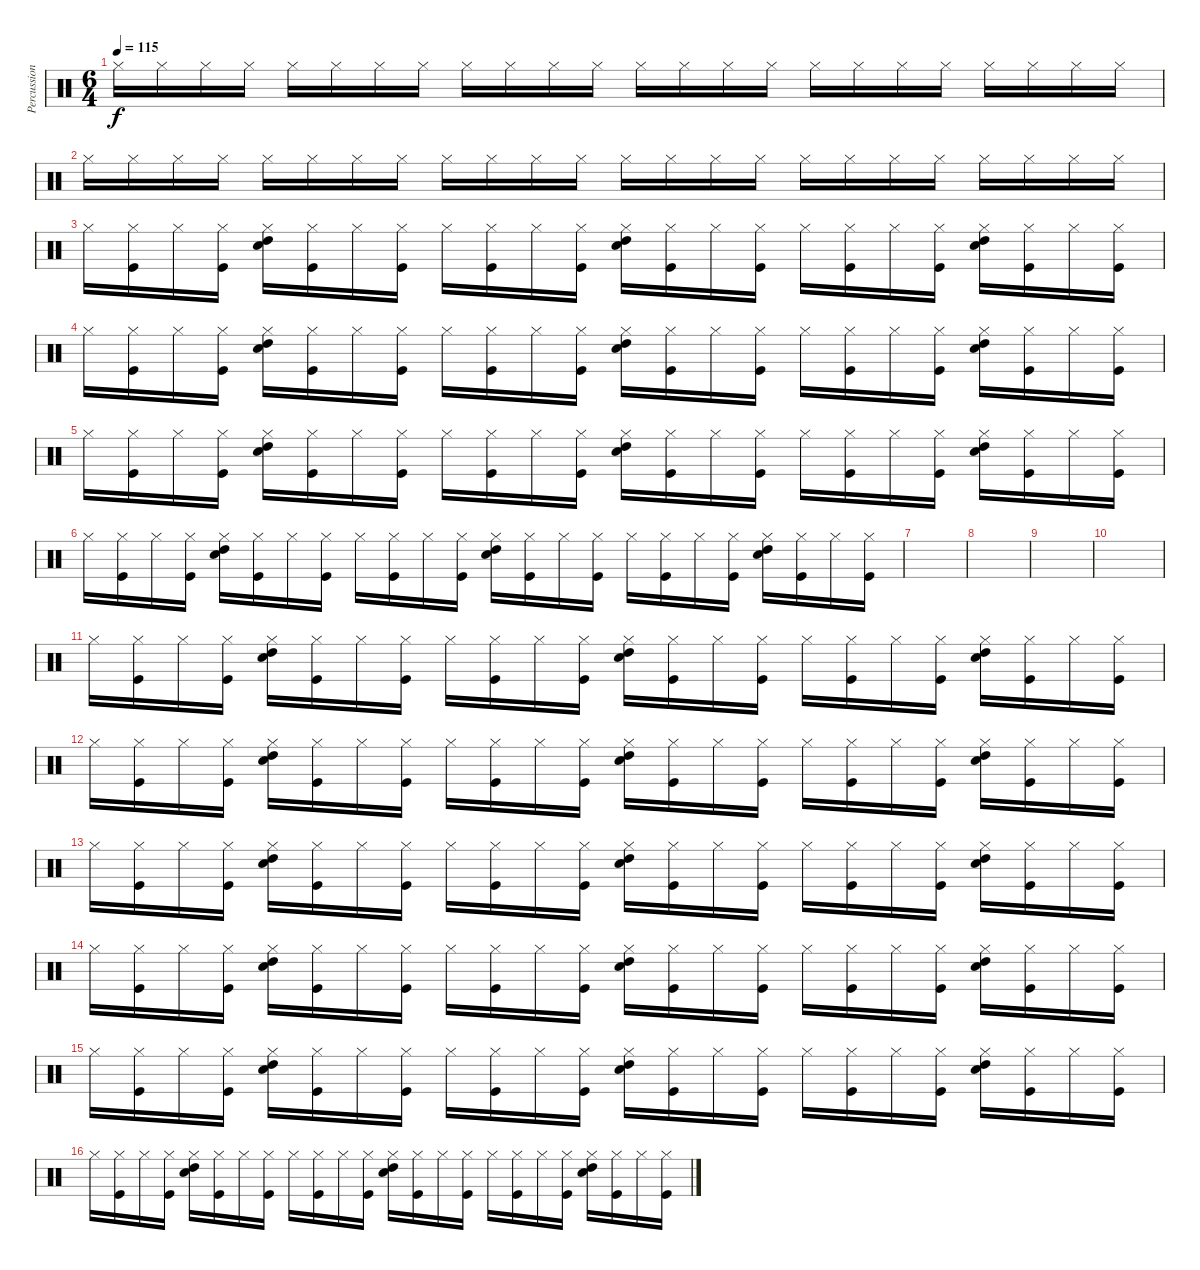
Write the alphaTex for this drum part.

\track ("Percussion" "Percussion") {instrument percussion}
\staff {score}
\articulation defaults
\ts (6 4)
\tempo 115
\clef neutral
\ks c "Hi-Hat (closed)".16{dy f volume 16} "Hi-Hat (closed)".16 "Hi-Hat (closed)".16 "Hi-Hat (closed)".16 "Hi-Hat (closed)".16 "Hi-Hat (closed)".16 "Hi-Hat (closed)".16 "Hi-Hat (closed)".16 "Hi-Hat (closed)".16 "Hi-Hat (closed)".16 "Hi-Hat (closed)".16 "Hi-Hat (closed)".16 "Hi-Hat (closed)".16 "Hi-Hat (closed)".16 "Hi-Hat (closed)".16 "Hi-Hat (closed)".16 "Hi-Hat (closed)".16 "Hi-Hat (closed)".16 "Hi-Hat (closed)".16 "Hi-Hat (closed)".16 "Hi-Hat (closed)".16 "Hi-Hat (closed)".16 "Hi-Hat (closed)".16 "Hi-Hat (closed)".16
|
"Hi-Hat (closed)".16{volume 16} "Hi-Hat (closed)".16 "Hi-Hat (closed)".16 "Hi-Hat (closed)".16 "Hi-Hat (closed)".16 "Hi-Hat (closed)".16 "Hi-Hat (closed)".16 "Hi-Hat (closed)".16 "Hi-Hat (closed)".16 "Hi-Hat (closed)".16 "Hi-Hat (closed)".16 "Hi-Hat (closed)".16 "Hi-Hat (closed)".16 "Hi-Hat (closed)".16 "Hi-Hat (closed)".16 "Hi-Hat (closed)".16 "Hi-Hat (closed)".16 "Hi-Hat (closed)".16 "Hi-Hat (closed)".16 "Hi-Hat (closed)".16 "Hi-Hat (closed)".16 "Hi-Hat (closed)".16 "Hi-Hat (closed)".16 "Hi-Hat (closed)".16 |
"Hi-Hat (closed)".16{volume 16} ("Hi-Hat (closed)" "Kick (hit)").16 "Hi-Hat (closed)".16 ("Hi-Hat (closed)" "Kick (hit)").16 ("Hi-Hat (closed)" "Electric Snare (hit)" "High Tom (hit)").16 ("Hi-Hat (closed)" "Kick (hit)").16 "Hi-Hat (closed)".16 ("Hi-Hat (closed)" "Kick (hit)").16 "Hi-Hat (closed)".16 ("Hi-Hat (closed)" "Kick (hit)").16 "Hi-Hat (closed)".16 ("Hi-Hat (closed)" "Kick (hit)").16 ("Hi-Hat (closed)" "Electric Snare (hit)" "High Tom (hit)").16 ("Hi-Hat (closed)" "Kick (hit)").16 "Hi-Hat (closed)".16 ("Hi-Hat (closed)" "Kick (hit)").16 "Hi-Hat (closed)".16 ("Hi-Hat (closed)" "Kick (hit)").16 "Hi-Hat (closed)".16 ("Hi-Hat (closed)" "Kick (hit)").16 ("Hi-Hat (closed)" "Electric Snare (hit)" "High Tom (hit)").16 ("Hi-Hat (closed)" "Kick (hit)").16 "Hi-Hat (closed)".16 ("Hi-Hat (closed)" "Kick (hit)").16 |
"Hi-Hat (closed)".16{volume 16} ("Hi-Hat (closed)" "Kick (hit)").16 "Hi-Hat (closed)".16 ("Hi-Hat (closed)" "Kick (hit)").16 ("Hi-Hat (closed)" "Electric Snare (hit)" "High Tom (hit)").16 ("Hi-Hat (closed)" "Kick (hit)").16 "Hi-Hat (closed)".16 ("Hi-Hat (closed)" "Kick (hit)").16 "Hi-Hat (closed)".16 ("Hi-Hat (closed)" "Kick (hit)").16 "Hi-Hat (closed)".16 ("Hi-Hat (closed)" "Kick (hit)").16 ("Hi-Hat (closed)" "Electric Snare (hit)" "High Tom (hit)").16 ("Hi-Hat (closed)" "Kick (hit)").16 "Hi-Hat (closed)".16 ("Hi-Hat (closed)" "Kick (hit)").16 "Hi-Hat (closed)".16 ("Hi-Hat (closed)" "Kick (hit)").16 "Hi-Hat (closed)".16 ("Hi-Hat (closed)" "Kick (hit)").16 ("Hi-Hat (closed)" "Electric Snare (hit)" "High Tom (hit)").16 ("Hi-Hat (closed)" "Kick (hit)").16 "Hi-Hat (closed)".16 ("Hi-Hat (closed)" "Kick (hit)").16 |
"Hi-Hat (closed)".16{volume 16} ("Hi-Hat (closed)" "Kick (hit)").16 "Hi-Hat (closed)".16 ("Hi-Hat (closed)" "Kick (hit)").16 ("Hi-Hat (closed)" "Electric Snare (hit)" "High Tom (hit)").16 ("Hi-Hat (closed)" "Kick (hit)").16 "Hi-Hat (closed)".16 ("Hi-Hat (closed)" "Kick (hit)").16 "Hi-Hat (closed)".16 ("Hi-Hat (closed)" "Kick (hit)").16 "Hi-Hat (closed)".16 ("Hi-Hat (closed)" "Kick (hit)").16 ("Hi-Hat (closed)" "Electric Snare (hit)" "High Tom (hit)").16 ("Hi-Hat (closed)" "Kick (hit)").16 "Hi-Hat (closed)".16 ("Hi-Hat (closed)" "Kick (hit)").16 "Hi-Hat (closed)".16 ("Hi-Hat (closed)" "Kick (hit)").16 "Hi-Hat (closed)".16 ("Hi-Hat (closed)" "Kick (hit)").16 ("Hi-Hat (closed)" "Electric Snare (hit)" "High Tom (hit)").16 ("Hi-Hat (closed)" "Kick (hit)").16 "Hi-Hat (closed)".16 ("Hi-Hat (closed)" "Kick (hit)").16 |
"Hi-Hat (closed)".16{volume 16} ("Hi-Hat (closed)" "Kick (hit)").16 "Hi-Hat (closed)".16 ("Hi-Hat (closed)" "Kick (hit)").16 ("Hi-Hat (closed)" "Electric Snare (hit)" "High Tom (hit)").16 ("Hi-Hat (closed)" "Kick (hit)").16 "Hi-Hat (closed)".16 ("Hi-Hat (closed)" "Kick (hit)").16 "Hi-Hat (closed)".16 ("Hi-Hat (closed)" "Kick (hit)").16 "Hi-Hat (closed)".16 ("Hi-Hat (closed)" "Kick (hit)").16 ("Hi-Hat (closed)" "Electric Snare (hit)" "High Tom (hit)").16 ("Hi-Hat (closed)" "Kick (hit)").16 "Hi-Hat (closed)".16 ("Hi-Hat (closed)" "Kick (hit)").16 "Hi-Hat (closed)".16 ("Hi-Hat (closed)" "Kick (hit)").16 "Hi-Hat (closed)".16 ("Hi-Hat (closed)" "Kick (hit)").16 ("Hi-Hat (closed)" "Electric Snare (hit)" "High Tom (hit)").16 ("Hi-Hat (closed)" "Kick (hit)").16 "Hi-Hat (closed)".16 ("Hi-Hat (closed)" "Kick (hit)").16 |
|
|
|
|
"Hi-Hat (closed)".16{volume 16} ("Hi-Hat (closed)" "Kick (hit)").16 "Hi-Hat (closed)".16 ("Hi-Hat (closed)" "Kick (hit)").16 ("Hi-Hat (closed)" "Electric Snare (hit)" "High Tom (hit)").16 ("Hi-Hat (closed)" "Kick (hit)").16 "Hi-Hat (closed)".16 ("Hi-Hat (closed)" "Kick (hit)").16 "Hi-Hat (closed)".16 ("Hi-Hat (closed)" "Kick (hit)").16 "Hi-Hat (closed)".16 ("Hi-Hat (closed)" "Kick (hit)").16 ("Hi-Hat (closed)" "Electric Snare (hit)" "High Tom (hit)").16 ("Hi-Hat (closed)" "Kick (hit)").16 "Hi-Hat (closed)".16 ("Hi-Hat (closed)" "Kick (hit)").16 "Hi-Hat (closed)".16 ("Hi-Hat (closed)" "Kick (hit)").16 "Hi-Hat (closed)".16 ("Hi-Hat (closed)" "Kick (hit)").16 ("Hi-Hat (closed)" "Electric Snare (hit)" "High Tom (hit)").16 ("Hi-Hat (closed)" "Kick (hit)").16 "Hi-Hat (closed)".16 ("Hi-Hat (closed)" "Kick (hit)").16 |
"Hi-Hat (closed)".16{volume 16} ("Hi-Hat (closed)" "Kick (hit)").16 "Hi-Hat (closed)".16 ("Hi-Hat (closed)" "Kick (hit)").16 ("Hi-Hat (closed)" "Electric Snare (hit)" "High Tom (hit)").16 ("Hi-Hat (closed)" "Kick (hit)").16 "Hi-Hat (closed)".16 ("Hi-Hat (closed)" "Kick (hit)").16 "Hi-Hat (closed)".16 ("Hi-Hat (closed)" "Kick (hit)").16 "Hi-Hat (closed)".16 ("Hi-Hat (closed)" "Kick (hit)").16 ("Hi-Hat (closed)" "Electric Snare (hit)" "High Tom (hit)").16 ("Hi-Hat (closed)" "Kick (hit)").16 "Hi-Hat (closed)".16 ("Hi-Hat (closed)" "Kick (hit)").16 "Hi-Hat (closed)".16 ("Hi-Hat (closed)" "Kick (hit)").16 "Hi-Hat (closed)".16 ("Hi-Hat (closed)" "Kick (hit)").16 ("Hi-Hat (closed)" "Electric Snare (hit)" "High Tom (hit)").16 ("Hi-Hat (closed)" "Kick (hit)").16 "Hi-Hat (closed)".16 ("Hi-Hat (closed)" "Kick (hit)").16 |
"Hi-Hat (closed)".16{volume 16} ("Hi-Hat (closed)" "Kick (hit)").16 "Hi-Hat (closed)".16 ("Hi-Hat (closed)" "Kick (hit)").16 ("Hi-Hat (closed)" "Electric Snare (hit)" "High Tom (hit)").16 ("Hi-Hat (closed)" "Kick (hit)").16 "Hi-Hat (closed)".16 ("Hi-Hat (closed)" "Kick (hit)").16 "Hi-Hat (closed)".16 ("Hi-Hat (closed)" "Kick (hit)").16 "Hi-Hat (closed)".16 ("Hi-Hat (closed)" "Kick (hit)").16 ("Hi-Hat (closed)" "Electric Snare (hit)" "High Tom (hit)").16 ("Hi-Hat (closed)" "Kick (hit)").16 "Hi-Hat (closed)".16 ("Hi-Hat (closed)" "Kick (hit)").16 "Hi-Hat (closed)".16 ("Hi-Hat (closed)" "Kick (hit)").16 "Hi-Hat (closed)".16 ("Hi-Hat (closed)" "Kick (hit)").16 ("Hi-Hat (closed)" "Electric Snare (hit)" "High Tom (hit)").16 ("Hi-Hat (closed)" "Kick (hit)").16 "Hi-Hat (closed)".16 ("Hi-Hat (closed)" "Kick (hit)").16 |
"Hi-Hat (closed)".16{volume 16} ("Hi-Hat (closed)" "Kick (hit)").16 "Hi-Hat (closed)".16 ("Hi-Hat (closed)" "Kick (hit)").16 ("Hi-Hat (closed)" "Electric Snare (hit)" "High Tom (hit)").16 ("Hi-Hat (closed)" "Kick (hit)").16 "Hi-Hat (closed)".16 ("Hi-Hat (closed)" "Kick (hit)").16 "Hi-Hat (closed)".16 ("Hi-Hat (closed)" "Kick (hit)").16 "Hi-Hat (closed)".16 ("Hi-Hat (closed)" "Kick (hit)").16 ("Hi-Hat (closed)" "Electric Snare (hit)" "High Tom (hit)").16 ("Hi-Hat (closed)" "Kick (hit)").16 "Hi-Hat (closed)".16 ("Hi-Hat (closed)" "Kick (hit)").16 "Hi-Hat (closed)".16 ("Hi-Hat (closed)" "Kick (hit)").16 "Hi-Hat (closed)".16 ("Hi-Hat (closed)" "Kick (hit)").16 ("Hi-Hat (closed)" "Electric Snare (hit)" "High Tom (hit)").16 ("Hi-Hat (closed)" "Kick (hit)").16 "Hi-Hat (closed)".16 ("Hi-Hat (closed)" "Kick (hit)").16 |
"Hi-Hat (closed)".16{volume 16} ("Hi-Hat (closed)" "Kick (hit)").16 "Hi-Hat (closed)".16 ("Hi-Hat (closed)" "Kick (hit)").16 ("Hi-Hat (closed)" "Electric Snare (hit)" "High Tom (hit)").16 ("Hi-Hat (closed)" "Kick (hit)").16 "Hi-Hat (closed)".16 ("Hi-Hat (closed)" "Kick (hit)").16 "Hi-Hat (closed)".16 ("Hi-Hat (closed)" "Kick (hit)").16 "Hi-Hat (closed)".16 ("Hi-Hat (closed)" "Kick (hit)").16 ("Hi-Hat (closed)" "Electric Snare (hit)" "High Tom (hit)").16 ("Hi-Hat (closed)" "Kick (hit)").16 "Hi-Hat (closed)".16 ("Hi-Hat (closed)" "Kick (hit)").16 "Hi-Hat (closed)".16 ("Hi-Hat (closed)" "Kick (hit)").16 "Hi-Hat (closed)".16 ("Hi-Hat (closed)" "Kick (hit)").16 ("Hi-Hat (closed)" "Electric Snare (hit)" "High Tom (hit)").16 ("Hi-Hat (closed)" "Kick (hit)").16 "Hi-Hat (closed)".16 ("Hi-Hat (closed)" "Kick (hit)").16 |
"Hi-Hat (closed)".16{volume 16} ("Hi-Hat (closed)" "Kick (hit)").16 "Hi-Hat (closed)".16 ("Hi-Hat (closed)" "Kick (hit)").16 ("Hi-Hat (closed)" "Electric Snare (hit)" "High Tom (hit)").16 ("Hi-Hat (closed)" "Kick (hit)").16 "Hi-Hat (closed)".16 ("Hi-Hat (closed)" "Kick (hit)").16 "Hi-Hat (closed)".16 ("Hi-Hat (closed)" "Kick (hit)").16 "Hi-Hat (closed)".16 ("Hi-Hat (closed)" "Kick (hit)").16 ("Hi-Hat (closed)" "Electric Snare (hit)" "High Tom (hit)").16 ("Hi-Hat (closed)" "Kick (hit)").16 "Hi-Hat (closed)".16 ("Hi-Hat (closed)" "Kick (hit)").16 "Hi-Hat (closed)".16 ("Hi-Hat (closed)" "Kick (hit)").16 "Hi-Hat (closed)".16 ("Hi-Hat (closed)" "Kick (hit)").16 ("Hi-Hat (closed)" "Electric Snare (hit)" "High Tom (hit)").16 ("Hi-Hat (closed)" "Kick (hit)").16 "Hi-Hat (closed)".16 ("Hi-Hat (closed)" "Kick (hit)").16
